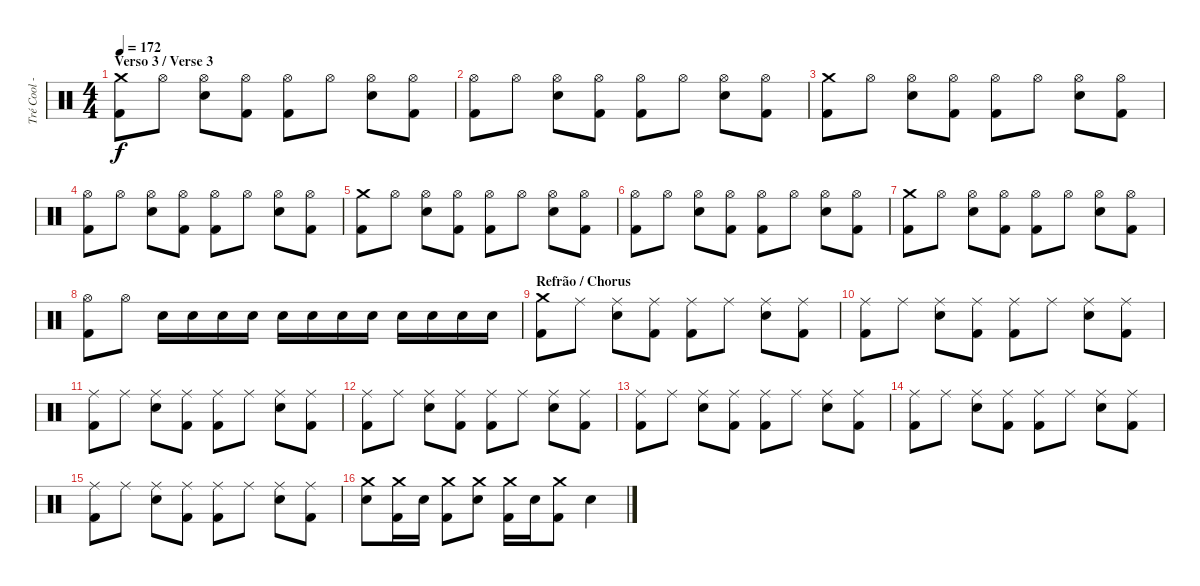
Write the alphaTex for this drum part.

\track ("Tré Cool - Bateria / Drums" "Tré Cool -") {instrument percussion}
\staff {score}
\articulation defaults
\ts (4 4)
\section ("" "Verso 3 / Verse 3")
\tempo 172
\clef neutral
\ks c
("Crash medium (hit)" "Kick (hit) 2").8{dy f} "Hi-Hat (open)".8 ("Hi-Hat (open)" "Electric Snare (hit)").8 ("Hi-Hat (open)" "Kick (hit) 2").8 ("Hi-Hat (open)" "Kick (hit) 2").8 "Hi-Hat (open)".8 ("Hi-Hat (open)" "Electric Snare (hit)").8 ("Hi-Hat (open)" "Kick (hit) 2").8 |
("Hi-Hat (open)" "Kick (hit) 2").8 "Hi-Hat (open)".8 ("Hi-Hat (open)" "Electric Snare (hit)").8 ("Hi-Hat (open)" "Kick (hit) 2").8 ("Hi-Hat (open)" "Kick (hit) 2").8 "Hi-Hat (open)".8 ("Hi-Hat (open)" "Electric Snare (hit)").8 ("Hi-Hat (open)" "Kick (hit) 2").8 |
("Crash medium (hit)" "Kick (hit) 2").8 "Hi-Hat (open)".8 ("Hi-Hat (open)" "Electric Snare (hit)").8 ("Hi-Hat (open)" "Kick (hit) 2").8 ("Hi-Hat (open)" "Kick (hit) 2").8 "Hi-Hat (open)".8 ("Hi-Hat (open)" "Electric Snare (hit)").8 ("Hi-Hat (open)" "Kick (hit) 2").8 |
("Hi-Hat (open)" "Kick (hit) 2").8 "Hi-Hat (open)".8 ("Hi-Hat (open)" "Electric Snare (hit)").8 ("Hi-Hat (open)" "Kick (hit) 2").8 ("Hi-Hat (open)" "Kick (hit) 2").8 "Hi-Hat (open)".8 ("Hi-Hat (open)" "Electric Snare (hit)").8 ("Hi-Hat (open)" "Kick (hit) 2").8 |
("Crash medium (hit)" "Kick (hit) 2").8 "Hi-Hat (open)".8 ("Hi-Hat (open)" "Electric Snare (hit)").8 ("Hi-Hat (open)" "Kick (hit) 2").8 ("Hi-Hat (open)" "Kick (hit) 2").8 "Hi-Hat (open)".8 ("Hi-Hat (open)" "Electric Snare (hit)").8 ("Hi-Hat (open)" "Kick (hit) 2").8 |
("Hi-Hat (open)" "Kick (hit) 2").8 "Hi-Hat (open)".8 ("Hi-Hat (open)" "Electric Snare (hit)").8 ("Hi-Hat (open)" "Kick (hit) 2").8 ("Hi-Hat (open)" "Kick (hit) 2").8 "Hi-Hat (open)".8 ("Hi-Hat (open)" "Electric Snare (hit)").8 ("Hi-Hat (open)" "Kick (hit) 2").8 |
("Crash medium (hit)" "Kick (hit) 2").8 "Hi-Hat (open)".8 ("Hi-Hat (open)" "Electric Snare (hit)").8 ("Hi-Hat (open)" "Kick (hit) 2").8 ("Hi-Hat (open)" "Kick (hit) 2").8 "Hi-Hat (open)".8 ("Hi-Hat (open)" "Electric Snare (hit)").8 ("Hi-Hat (open)" "Kick (hit) 2").8 |
("Hi-Hat (open)" "Kick (hit) 2").8 "Hi-Hat (open)".8 "Electric Snare (hit)".16 "Electric Snare (hit)".16 "Electric Snare (hit)".16 "Electric Snare (hit)".16 "Electric Snare (hit)".16 "Electric Snare (hit)".16 "Electric Snare (hit)".16 "Electric Snare (hit)".16 "Electric Snare (hit)".16 "Electric Snare (hit)".16 "Electric Snare (hit)".16 "Electric Snare (hit)".16 |
\section ("" "Refrão / Chorus")
("Crash medium (hit)" "Kick (hit) 2").8 "Ride (middle)".8 ("Ride (middle)" "Electric Snare (hit)").8 ("Ride (middle)" "Kick (hit) 2").8 ("Ride (middle)" "Kick (hit) 2").8 "Ride (middle)".8 ("Ride (middle)" "Electric Snare (hit)").8 ("Ride (middle)" "Kick (hit) 2").8 |
("Ride (middle)" "Kick (hit) 2").8 "Ride (middle)".8 ("Ride (middle)" "Electric Snare (hit)").8 ("Ride (middle)" "Kick (hit) 2").8 ("Ride (middle)" "Kick (hit) 2").8 "Ride (middle)".8 ("Ride (middle)" "Electric Snare (hit)").8 ("Ride (middle)" "Kick (hit) 2").8 |
("Ride (middle)" "Kick (hit) 2").8 "Ride (middle)".8 ("Ride (middle)" "Electric Snare (hit)").8 ("Ride (middle)" "Kick (hit) 2").8 ("Ride (middle)" "Kick (hit) 2").8 "Ride (middle)".8 ("Ride (middle)" "Electric Snare (hit)").8 ("Ride (middle)" "Kick (hit) 2").8 |
("Ride (middle)" "Kick (hit) 2").8 "Ride (middle)".8 ("Ride (middle)" "Electric Snare (hit)").8 ("Ride (middle)" "Kick (hit) 2").8 ("Ride (middle)" "Kick (hit) 2").8 "Ride (middle)".8 ("Ride (middle)" "Electric Snare (hit)").8 ("Ride (middle)" "Kick (hit) 2").8 |
("Ride (middle)" "Kick (hit) 2").8 "Ride (middle)".8 ("Ride (middle)" "Electric Snare (hit)").8 ("Ride (middle)" "Kick (hit) 2").8 ("Ride (middle)" "Kick (hit) 2").8 "Ride (middle)".8 ("Ride (middle)" "Electric Snare (hit)").8 ("Ride (middle)" "Kick (hit) 2").8 |
("Ride (middle)" "Kick (hit) 2").8 "Ride (middle)".8 ("Ride (middle)" "Electric Snare (hit)").8 ("Ride (middle)" "Kick (hit) 2").8 ("Ride (middle)" "Kick (hit) 2").8 "Ride (middle)".8 ("Ride (middle)" "Electric Snare (hit)").8 ("Ride (middle)" "Kick (hit) 2").8 |
("Ride (middle)" "Kick (hit) 2").8 "Ride (middle)".8 ("Ride (middle)" "Electric Snare (hit)").8 ("Ride (middle)" "Kick (hit) 2").8 ("Ride (middle)" "Kick (hit) 2").8 "Ride (middle)".8 ("Ride (middle)" "Electric Snare (hit)").8 ("Ride (middle)" "Kick (hit) 2").8 |
("Crash medium (hit)" "Electric Snare (hit)").8 ("Crash medium (hit)" "Kick (hit) 2").16 "Electric Snare (hit)".16 ("Crash medium (hit)" "Kick (hit) 2").8 ("Crash medium (hit)" "Electric Snare (hit)").8 ("Crash medium (hit)" "Kick (hit) 2").16 "Electric Snare (hit)".16 ("Crash medium (hit)" "Kick (hit) 2").8 "Electric Snare (hit)".4
